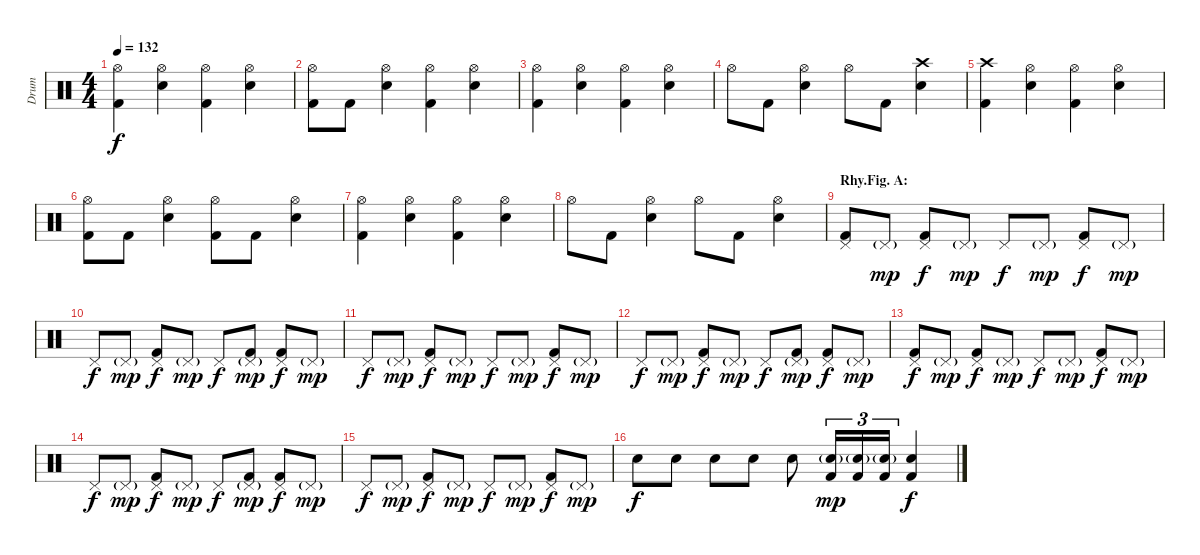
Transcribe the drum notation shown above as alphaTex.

\track ("Drum" "Drum") {instrument percussion}
\staff {score}
\articulation defaults
\ts (4 4)
\tempo 132
\clef neutral
\ks c
("Hi-Hat (open)" "Kick (hit) 2").4{dy f} ("Hi-Hat (open)" "Snare (hit) 2").4 ("Hi-Hat (open)" "Kick (hit) 2").4 ("Hi-Hat (open)" "Snare (hit) 2").4 |
("Hi-Hat (open)" "Kick (hit) 2").8 "Kick (hit) 2".8 ("Hi-Hat (open)" "Snare (hit) 2").4 ("Hi-Hat (open)" "Kick (hit) 2").4 ("Hi-Hat (open)" "Snare (hit) 2").4 |
("Hi-Hat (open)" "Kick (hit) 2").4 ("Hi-Hat (open)" "Snare (hit) 2").4 ("Hi-Hat (open)" "Kick (hit) 2").4 ("Hi-Hat (open)" "Snare (hit) 2").4 |
"Hi-Hat (open)".8 "Kick (hit) 2".8 ("Hi-Hat (open)" "Snare (hit) 2").4 "Hi-Hat (open)".8 "Kick (hit) 2".8 ("Crash high (hit)" "Snare (hit) 2").4 |
("Crash high (hit)" "Kick (hit) 2").4 ("Hi-Hat (open)" "Snare (hit) 2").4 ("Hi-Hat (open)" "Kick (hit) 2").4 ("Hi-Hat (open)" "Snare (hit) 2").4 |
("Hi-Hat (open)" "Kick (hit) 2").8 "Kick (hit) 2".8 ("Hi-Hat (open)" "Snare (hit) 2").4 ("Hi-Hat (open)" "Kick (hit) 2").8 "Kick (hit) 2".8 ("Hi-Hat (open)" "Snare (hit) 2").4 |
("Hi-Hat (open)" "Kick (hit) 2").4 ("Hi-Hat (open)" "Snare (hit) 2").4 ("Hi-Hat (open)" "Kick (hit) 2").4 ("Hi-Hat (open)" "Snare (hit) 2").4 |
"Hi-Hat (open)".8 "Kick (hit) 2".8 ("Hi-Hat (open)" "Snare (hit) 2").4 "Hi-Hat (open)".8 "Kick (hit) 2".8 ("Hi-Hat (open)" "Snare (hit) 2").4 |
\section ("" "Rhy.Fig. A:")
("Pedal Hi-Hat (hit)" "Kick (hit) 2").8 "Pedal Hi-Hat (hit)"{g}.8{dy mp} ("Pedal Hi-Hat (hit)" "Kick (hit) 2").8{dy f} "Pedal Hi-Hat (hit)"{g}.8{dy mp} "Pedal Hi-Hat (hit)".8{dy f} "Pedal Hi-Hat (hit)"{g}.8{dy mp} ("Pedal Hi-Hat (hit)" "Kick (hit) 2").8{dy f} "Pedal Hi-Hat (hit)"{g}.8{dy mp} |
"Pedal Hi-Hat (hit)".8{dy f} "Pedal Hi-Hat (hit)"{g}.8{dy mp} ("Pedal Hi-Hat (hit)" "Kick (hit) 2").8{dy f} "Pedal Hi-Hat (hit)"{g}.8{dy mp} "Pedal Hi-Hat (hit)".8{dy f} ("Pedal Hi-Hat (hit)"{g} "Kick (hit) 2").8{dy mp} ("Pedal Hi-Hat (hit)" "Kick (hit) 2").8{dy f} "Pedal Hi-Hat (hit)"{g}.8{dy mp} |
"Pedal Hi-Hat (hit)".8{dy f} "Pedal Hi-Hat (hit)"{g}.8{dy mp} ("Pedal Hi-Hat (hit)" "Kick (hit) 2").8{dy f} "Pedal Hi-Hat (hit)"{g}.8{dy mp} "Pedal Hi-Hat (hit)".8{dy f} "Pedal Hi-Hat (hit)"{g}.8{dy mp} ("Pedal Hi-Hat (hit)" "Kick (hit) 2").8{dy f} "Pedal Hi-Hat (hit)"{g}.8{dy mp} |
"Pedal Hi-Hat (hit)".8{dy f} "Pedal Hi-Hat (hit)"{g}.8{dy mp} ("Pedal Hi-Hat (hit)" "Kick (hit) 2").8{dy f} "Pedal Hi-Hat (hit)"{g}.8{dy mp} "Pedal Hi-Hat (hit)".8{dy f} ("Pedal Hi-Hat (hit)"{g} "Kick (hit) 2").8{dy mp} ("Pedal Hi-Hat (hit)" "Kick (hit) 2").8{dy f} "Pedal Hi-Hat (hit)"{g}.8{dy mp} |
("Pedal Hi-Hat (hit)" "Kick (hit) 2").8{dy f} "Pedal Hi-Hat (hit)"{g}.8{dy mp} ("Pedal Hi-Hat (hit)" "Kick (hit) 2").8{dy f} "Pedal Hi-Hat (hit)"{g}.8{dy mp} "Pedal Hi-Hat (hit)".8{dy f} "Pedal Hi-Hat (hit)"{g}.8{dy mp} ("Pedal Hi-Hat (hit)" "Kick (hit) 2").8{dy f} "Pedal Hi-Hat (hit)"{g}.8{dy mp} |
"Pedal Hi-Hat (hit)".8{dy f} "Pedal Hi-Hat (hit)"{g}.8{dy mp} ("Pedal Hi-Hat (hit)" "Kick (hit) 2").8{dy f} "Pedal Hi-Hat (hit)"{g}.8{dy mp} "Pedal Hi-Hat (hit)".8{dy f} ("Pedal Hi-Hat (hit)"{g} "Kick (hit) 2").8{dy mp} ("Pedal Hi-Hat (hit)" "Kick (hit) 2").8{dy f} "Pedal Hi-Hat (hit)"{g}.8{dy mp} |
"Pedal Hi-Hat (hit)".8{dy f} "Pedal Hi-Hat (hit)"{g}.8{dy mp} ("Pedal Hi-Hat (hit)" "Kick (hit) 2").8{dy f} "Pedal Hi-Hat (hit)"{g}.8{dy mp} "Pedal Hi-Hat (hit)".8{dy f} "Pedal Hi-Hat (hit)"{g}.8{dy mp} ("Pedal Hi-Hat (hit)" "Kick (hit) 2").8{dy f} "Pedal Hi-Hat (hit)"{g}.8{dy mp} |
"Snare (hit) 2".8{dy f} "Snare (hit) 2".8 "Snare (hit) 2".8 "Snare (hit) 2".8 "Snare (hit) 2".8 ("Snare (hit) 2"{g} "Kick (hit) 2").16{tu (3 2) dy mp} ("Snare (hit) 2"{g} "Kick (hit) 2").16{tu (3 2)} ("Snare (hit) 2"{g} "Kick (hit) 2").16{tu (3 2)} ("Snare (hit) 2" "Kick (hit) 2").4{dy f}
